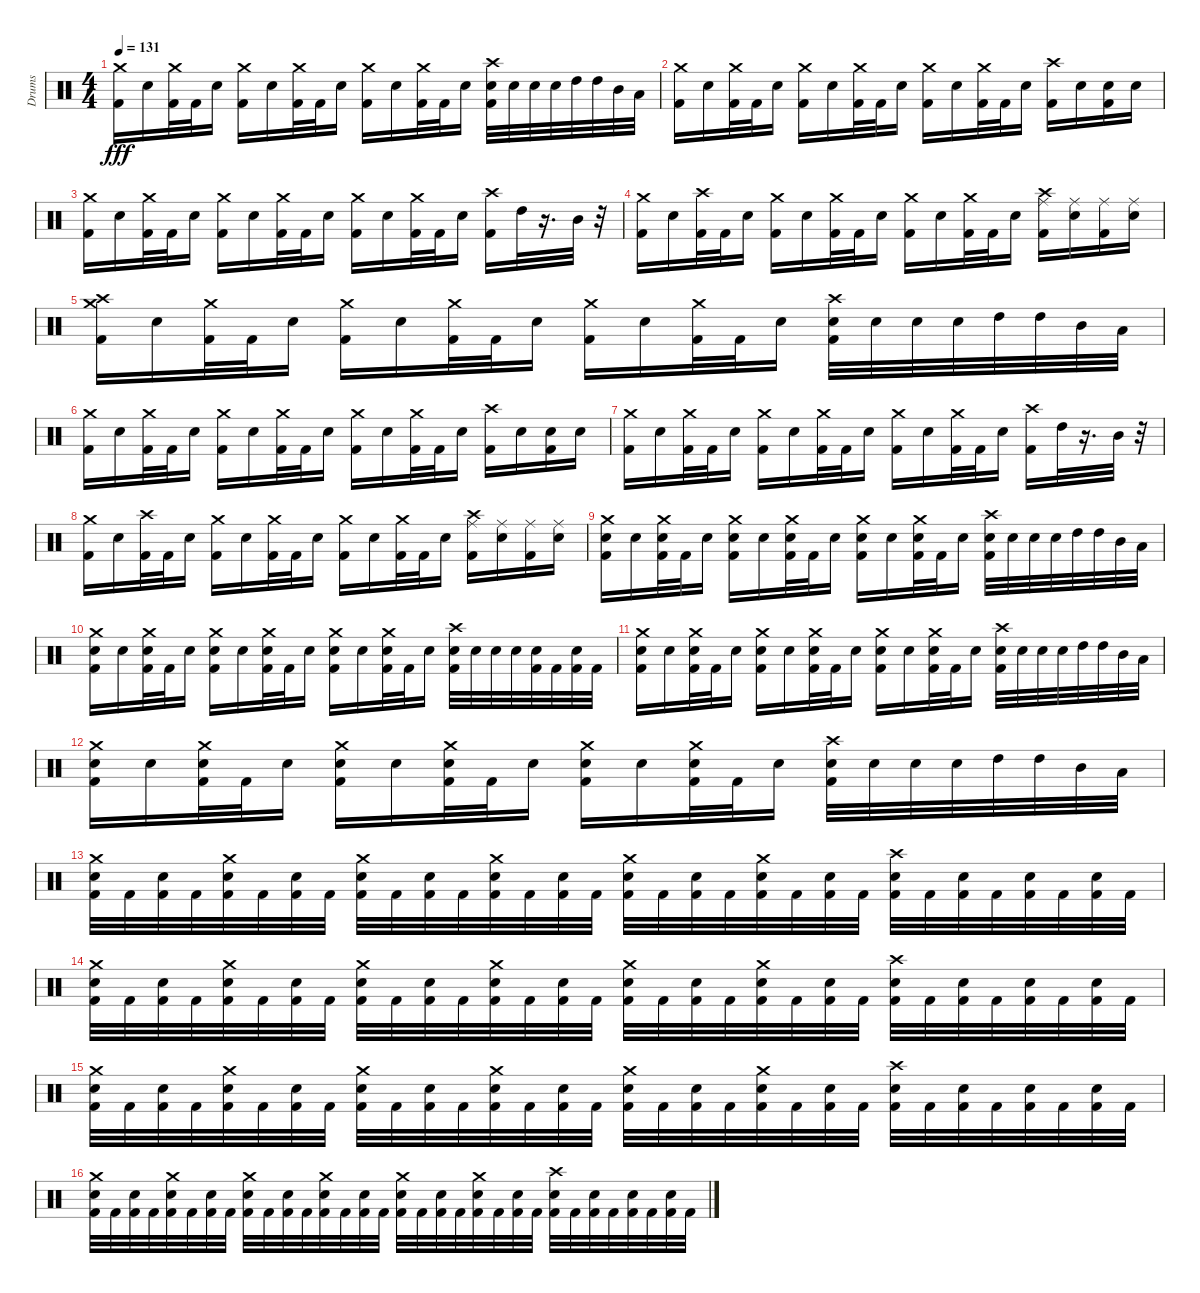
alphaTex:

\track ("Drums" "Drums") {instrument percussion}
\staff {score}
\articulation defaults
\ts (4 4)
\tempo 131
\clef neutral
\ks c
("Crash medium (hit)" "Kick (hit) 2").16{dy fff} "Snare (hit) 2".16 ("Crash medium (hit)" "Kick (hit) 2").32 "Kick (hit) 2".32 "Snare (hit) 2".16 ("Crash medium (hit)" "Kick (hit) 2").16 "Snare (hit) 2".16 ("Crash medium (hit)" "Kick (hit) 2").32 "Kick (hit) 2".32 "Snare (hit) 2".16 ("Crash medium (hit)" "Kick (hit) 2").16 "Snare (hit) 2".16 ("Crash medium (hit)" "Kick (hit) 2").32 "Kick (hit) 2".32 "Snare (hit) 2".16 ("Crash high (hit)" "Kick (hit) 2" "Snare (hit) 2").32 "Snare (hit) 2".32 "Snare (hit) 2".32 "Snare (hit) 2".32 "High Tom (hit)".32 "High Tom (hit)".32 "Mid Tom (hit)".32 "Low Tom (hit)".32 |
("Crash medium (hit)" "Kick (hit) 2").16 "Snare (hit) 2".16 ("Crash medium (hit)" "Kick (hit) 2").32 "Kick (hit) 2".32 "Snare (hit) 2".16 ("Crash medium (hit)" "Kick (hit) 2").16 "Snare (hit) 2".16 ("Crash medium (hit)" "Kick (hit) 2").32 "Kick (hit) 2".32 "Snare (hit) 2".16 ("Crash medium (hit)" "Kick (hit) 2").16 "Snare (hit) 2".16 ("Crash medium (hit)" "Kick (hit) 2").32 "Kick (hit) 2".32 "Snare (hit) 2".16 ("Crash high (hit)" "Kick (hit) 2").16 "Snare (hit) 2".16 ("Kick (hit) 2" "Snare (hit) 2").16 "Snare (hit) 2".16 |
("Crash medium (hit)" "Kick (hit) 2").16 "Snare (hit) 2".16 ("Crash medium (hit)" "Kick (hit) 2").32 "Kick (hit) 2".32 "Snare (hit) 2".16 ("Crash medium (hit)" "Kick (hit) 2").16 "Snare (hit) 2".16 ("Crash medium (hit)" "Kick (hit) 2").32 "Kick (hit) 2".32 "Snare (hit) 2".16 ("Crash medium (hit)" "Kick (hit) 2").16 "Snare (hit) 2".16 ("Crash medium (hit)" "Kick (hit) 2").32 "Kick (hit) 2".32 "Snare (hit) 2".16 ("Crash high (hit)" "Kick (hit) 2").16 "High Tom (hit)".32 r.16{d} "Mid Tom (hit)".32 r.32 |
("Crash medium (hit)" "Kick (hit) 2").16 "Snare (hit) 2".16 ("Crash high (hit)" "Kick (hit) 2").32 "Kick (hit) 2".32 "Snare (hit) 2".16 ("Crash medium (hit)" "Kick (hit) 2").16 "Snare (hit) 2".16 ("Crash medium (hit)" "Kick (hit) 2").32 "Kick (hit) 2".32 "Snare (hit) 2".16 ("Crash medium (hit)" "Kick (hit) 2").16 "Snare (hit) 2".16 ("Crash medium (hit)" "Kick (hit) 2").32 "Kick (hit) 2".32 "Snare (hit) 2".16 ("Crash high (hit)" "Kick (hit) 2" "Ride (middle)").16 ("Snare (hit) 2" "Ride (middle)").16 ("Kick (hit) 2" "Ride (middle)").16 ("Snare (hit) 2" "Ride (middle)").16 |
("Crash high (hit)" "Crash medium (hit)" "Kick (hit) 2").16 "Snare (hit) 2".16 ("Crash medium (hit)" "Kick (hit) 2").32 "Kick (hit) 2".32 "Snare (hit) 2".16 ("Crash medium (hit)" "Kick (hit) 2").16 "Snare (hit) 2".16 ("Crash medium (hit)" "Kick (hit) 2").32 "Kick (hit) 2".32 "Snare (hit) 2".16 ("Crash medium (hit)" "Kick (hit) 2").16 "Snare (hit) 2".16 ("Crash medium (hit)" "Kick (hit) 2").32 "Kick (hit) 2".32 "Snare (hit) 2".16 ("Crash high (hit)" "Kick (hit) 2" "Snare (hit) 2").32 "Snare (hit) 2".32 "Snare (hit) 2".32 "Snare (hit) 2".32 "High Tom (hit)".32 "High Tom (hit)".32 "Mid Tom (hit)".32 "Low Tom (hit)".32 |
("Crash medium (hit)" "Kick (hit) 2").16 "Snare (hit) 2".16 ("Crash medium (hit)" "Kick (hit) 2").32 "Kick (hit) 2".32 "Snare (hit) 2".16 ("Crash medium (hit)" "Kick (hit) 2").16 "Snare (hit) 2".16 ("Crash medium (hit)" "Kick (hit) 2").32 "Kick (hit) 2".32 "Snare (hit) 2".16 ("Crash medium (hit)" "Kick (hit) 2").16 "Snare (hit) 2".16 ("Crash medium (hit)" "Kick (hit) 2").32 "Kick (hit) 2".32 "Snare (hit) 2".16 ("Crash high (hit)" "Kick (hit) 2").16 "Snare (hit) 2".16 ("Kick (hit) 2" "Snare (hit) 2").16 "Snare (hit) 2".16 |
("Crash medium (hit)" "Kick (hit) 2").16 "Snare (hit) 2".16 ("Crash medium (hit)" "Kick (hit) 2").32 "Kick (hit) 2".32 "Snare (hit) 2".16 ("Crash medium (hit)" "Kick (hit) 2").16 "Snare (hit) 2".16 ("Crash medium (hit)" "Kick (hit) 2").32 "Kick (hit) 2".32 "Snare (hit) 2".16 ("Crash medium (hit)" "Kick (hit) 2").16 "Snare (hit) 2".16 ("Crash medium (hit)" "Kick (hit) 2").32 "Kick (hit) 2".32 "Snare (hit) 2".16 ("Crash high (hit)" "Kick (hit) 2").16 "High Tom (hit)".32 r.16{d} "Mid Tom (hit)".32 r.32 |
("Crash medium (hit)" "Kick (hit) 2").16 "Snare (hit) 2".16 ("Crash high (hit)" "Kick (hit) 2").32 "Kick (hit) 2".32 "Snare (hit) 2".16 ("Crash medium (hit)" "Kick (hit) 2").16 "Snare (hit) 2".16 ("Crash medium (hit)" "Kick (hit) 2").32 "Kick (hit) 2".32 "Snare (hit) 2".16 ("Crash medium (hit)" "Kick (hit) 2").16 "Snare (hit) 2".16 ("Crash medium (hit)" "Kick (hit) 2").32 "Kick (hit) 2".32 "Snare (hit) 2".16 ("Crash high (hit)" "Kick (hit) 2" "Ride (middle)").16 ("Snare (hit) 2" "Ride (middle)").16 ("Kick (hit) 2" "Ride (middle)").16 ("Snare (hit) 2" "Ride (middle)").16 |
("Crash medium (hit)" "Kick (hit) 2" "Snare (hit) 2").16 "Snare (hit) 2".16 ("Crash medium (hit)" "Kick (hit) 2" "Snare (hit) 2").32 "Kick (hit) 2".32 "Snare (hit) 2".16 ("Crash medium (hit)" "Kick (hit) 2" "Snare (hit) 2").16 "Snare (hit) 2".16 ("Crash medium (hit)" "Kick (hit) 2" "Snare (hit) 2").32 "Kick (hit) 2".32 "Snare (hit) 2".16 ("Crash medium (hit)" "Kick (hit) 2" "Snare (hit) 2").16 "Snare (hit) 2".16 ("Crash medium (hit)" "Kick (hit) 2" "Snare (hit) 2").32 "Kick (hit) 2".32 "Snare (hit) 2".16 ("Crash high (hit)" "Kick (hit) 2" "Snare (hit) 2").32 "Snare (hit) 2".32 "Snare (hit) 2".32 "Snare (hit) 2".32 "High Tom (hit)".32 "High Tom (hit)".32 "Mid Tom (hit)".32 "Low Tom (hit)".32 |
("Crash medium (hit)" "Kick (hit) 2" "Snare (hit) 2").16 "Snare (hit) 2".16 ("Crash medium (hit)" "Kick (hit) 2" "Snare (hit) 2").32 "Kick (hit) 2".32 "Snare (hit) 2".16 ("Crash medium (hit)" "Kick (hit) 2" "Snare (hit) 2").16 "Snare (hit) 2".16 ("Crash medium (hit)" "Kick (hit) 2" "Snare (hit) 2").32 "Kick (hit) 2".32 "Snare (hit) 2".16 ("Crash medium (hit)" "Kick (hit) 2" "Snare (hit) 2").16 "Snare (hit) 2".16 ("Crash medium (hit)" "Kick (hit) 2" "Snare (hit) 2").32 "Kick (hit) 2".32 "Snare (hit) 2".16 ("Crash high (hit)" "Kick (hit) 2" "Snare (hit) 2").32 "Snare (hit) 2".32 "Snare (hit) 2".32 "Snare (hit) 2".32 ("Kick (hit) 2" "Snare (hit) 2").32 "Kick (hit) 2".32 ("Kick (hit) 2" "Snare (hit) 2").32 "Kick (hit) 2".32 |
("Crash medium (hit)" "Kick (hit) 2" "Snare (hit) 2").16 "Snare (hit) 2".16 ("Crash medium (hit)" "Kick (hit) 2" "Snare (hit) 2").32 "Kick (hit) 2".32 "Snare (hit) 2".16 ("Crash medium (hit)" "Kick (hit) 2" "Snare (hit) 2").16 "Snare (hit) 2".16 ("Crash medium (hit)" "Kick (hit) 2" "Snare (hit) 2").32 "Kick (hit) 2".32 "Snare (hit) 2".16 ("Crash medium (hit)" "Kick (hit) 2" "Snare (hit) 2").16 "Snare (hit) 2".16 ("Crash medium (hit)" "Kick (hit) 2" "Snare (hit) 2").32 "Kick (hit) 2".32 "Snare (hit) 2".16 ("Crash high (hit)" "Kick (hit) 2" "Snare (hit) 2").32 "Snare (hit) 2".32 "Snare (hit) 2".32 "Snare (hit) 2".32 "High Tom (hit)".32 "High Tom (hit)".32 "Mid Tom (hit)".32 "Low Tom (hit)".32 |
("Crash medium (hit)" "Kick (hit) 2" "Snare (hit) 2").16 "Snare (hit) 2".16 ("Crash medium (hit)" "Kick (hit) 2" "Snare (hit) 2").32 "Kick (hit) 2".32 "Snare (hit) 2".16 ("Crash medium (hit)" "Kick (hit) 2" "Snare (hit) 2").16 "Snare (hit) 2".16 ("Crash medium (hit)" "Kick (hit) 2" "Snare (hit) 2").32 "Kick (hit) 2".32 "Snare (hit) 2".16 ("Crash medium (hit)" "Kick (hit) 2" "Snare (hit) 2").16 "Snare (hit) 2".16 ("Crash medium (hit)" "Kick (hit) 2" "Snare (hit) 2").32 "Kick (hit) 2".32 "Snare (hit) 2".16 ("Crash high (hit)" "Kick (hit) 2" "Snare (hit) 2").32 "Snare (hit) 2".32 "Snare (hit) 2".32 "Snare (hit) 2".32 "High Tom (hit)".32 "High Tom (hit)".32 "Mid Tom (hit)".32 "Low Tom (hit)".32 |
("Crash medium (hit)" "Kick (hit) 2" "Snare (hit) 2").32 "Kick (hit) 2".32 ("Kick (hit) 2" "Snare (hit) 2").32 "Kick (hit) 2".32 ("Crash medium (hit)" "Kick (hit) 2" "Snare (hit) 2").32 "Kick (hit) 2".32 ("Kick (hit) 2" "Snare (hit) 2").32 "Kick (hit) 2".32 ("Crash medium (hit)" "Kick (hit) 2" "Snare (hit) 2").32 "Kick (hit) 2".32 ("Kick (hit) 2" "Snare (hit) 2").32 "Kick (hit) 2".32 ("Crash medium (hit)" "Kick (hit) 2" "Snare (hit) 2").32 "Kick (hit) 2".32 ("Kick (hit) 2" "Snare (hit) 2").32 "Kick (hit) 2".32 ("Crash medium (hit)" "Kick (hit) 2" "Snare (hit) 2").32 "Kick (hit) 2".32 ("Kick (hit) 2" "Snare (hit) 2").32 "Kick (hit) 2".32 ("Crash medium (hit)" "Kick (hit) 2" "Snare (hit) 2").32 "Kick (hit) 2".32 ("Kick (hit) 2" "Snare (hit) 2").32 "Kick (hit) 2".32 ("Crash high (hit)" "Kick (hit) 2" "Snare (hit) 2").32 "Kick (hit) 2".32 ("Kick (hit) 2" "Snare (hit) 2").32 "Kick (hit) 2".32 ("Kick (hit) 2" "Snare (hit) 2").32 "Kick (hit) 2".32 ("Kick (hit) 2" "Snare (hit) 2").32 "Kick (hit) 2".32 |
("Crash medium (hit)" "Kick (hit) 2" "Snare (hit) 2").32 "Kick (hit) 2".32 ("Kick (hit) 2" "Snare (hit) 2").32 "Kick (hit) 2".32 ("Crash medium (hit)" "Kick (hit) 2" "Snare (hit) 2").32 "Kick (hit) 2".32 ("Kick (hit) 2" "Snare (hit) 2").32 "Kick (hit) 2".32 ("Crash medium (hit)" "Kick (hit) 2" "Snare (hit) 2").32 "Kick (hit) 2".32 ("Kick (hit) 2" "Snare (hit) 2").32 "Kick (hit) 2".32 ("Crash medium (hit)" "Kick (hit) 2" "Snare (hit) 2").32 "Kick (hit) 2".32 ("Kick (hit) 2" "Snare (hit) 2").32 "Kick (hit) 2".32 ("Crash medium (hit)" "Kick (hit) 2" "Snare (hit) 2").32 "Kick (hit) 2".32 ("Kick (hit) 2" "Snare (hit) 2").32 "Kick (hit) 2".32 ("Crash medium (hit)" "Kick (hit) 2" "Snare (hit) 2").32 "Kick (hit) 2".32 ("Kick (hit) 2" "Snare (hit) 2").32 "Kick (hit) 2".32 ("Crash high (hit)" "Kick (hit) 2" "Snare (hit) 2").32 "Kick (hit) 2".32 ("Kick (hit) 2" "Snare (hit) 2").32 "Kick (hit) 2".32 ("Kick (hit) 2" "Snare (hit) 2").32 "Kick (hit) 2".32 ("Kick (hit) 2" "Snare (hit) 2").32 "Kick (hit) 2".32 |
("Crash medium (hit)" "Kick (hit) 2" "Snare (hit) 2").32 "Kick (hit) 2".32 ("Kick (hit) 2" "Snare (hit) 2").32 "Kick (hit) 2".32 ("Crash medium (hit)" "Kick (hit) 2" "Snare (hit) 2").32 "Kick (hit) 2".32 ("Kick (hit) 2" "Snare (hit) 2").32 "Kick (hit) 2".32 ("Crash medium (hit)" "Kick (hit) 2" "Snare (hit) 2").32 "Kick (hit) 2".32 ("Kick (hit) 2" "Snare (hit) 2").32 "Kick (hit) 2".32 ("Crash medium (hit)" "Kick (hit) 2" "Snare (hit) 2").32 "Kick (hit) 2".32 ("Kick (hit) 2" "Snare (hit) 2").32 "Kick (hit) 2".32 ("Crash medium (hit)" "Kick (hit) 2" "Snare (hit) 2").32 "Kick (hit) 2".32 ("Kick (hit) 2" "Snare (hit) 2").32 "Kick (hit) 2".32 ("Crash medium (hit)" "Kick (hit) 2" "Snare (hit) 2").32 "Kick (hit) 2".32 ("Kick (hit) 2" "Snare (hit) 2").32 "Kick (hit) 2".32 ("Crash high (hit)" "Kick (hit) 2" "Snare (hit) 2").32 "Kick (hit) 2".32 ("Kick (hit) 2" "Snare (hit) 2").32 "Kick (hit) 2".32 ("Kick (hit) 2" "Snare (hit) 2").32 "Kick (hit) 2".32 ("Kick (hit) 2" "Snare (hit) 2").32 "Kick (hit) 2".32 |
("Crash medium (hit)" "Kick (hit) 2" "Snare (hit) 2").32 "Kick (hit) 2".32 ("Kick (hit) 2" "Snare (hit) 2").32 "Kick (hit) 2".32 ("Crash medium (hit)" "Kick (hit) 2" "Snare (hit) 2").32 "Kick (hit) 2".32 ("Kick (hit) 2" "Snare (hit) 2").32 "Kick (hit) 2".32 ("Crash medium (hit)" "Kick (hit) 2" "Snare (hit) 2").32 "Kick (hit) 2".32 ("Kick (hit) 2" "Snare (hit) 2").32 "Kick (hit) 2".32 ("Crash medium (hit)" "Kick (hit) 2" "Snare (hit) 2").32 "Kick (hit) 2".32 ("Kick (hit) 2" "Snare (hit) 2").32 "Kick (hit) 2".32 ("Crash medium (hit)" "Kick (hit) 2" "Snare (hit) 2").32 "Kick (hit) 2".32 ("Kick (hit) 2" "Snare (hit) 2").32 "Kick (hit) 2".32 ("Crash medium (hit)" "Kick (hit) 2" "Snare (hit) 2").32 "Kick (hit) 2".32 ("Kick (hit) 2" "Snare (hit) 2").32 "Kick (hit) 2".32 ("Crash high (hit)" "Kick (hit) 2" "Snare (hit) 2").32 "Kick (hit) 2".32 ("Kick (hit) 2" "Snare (hit) 2").32 "Kick (hit) 2".32 ("Kick (hit) 2" "Snare (hit) 2").32 "Kick (hit) 2".32 ("Kick (hit) 2" "Snare (hit) 2").32 "Kick (hit) 2".32
